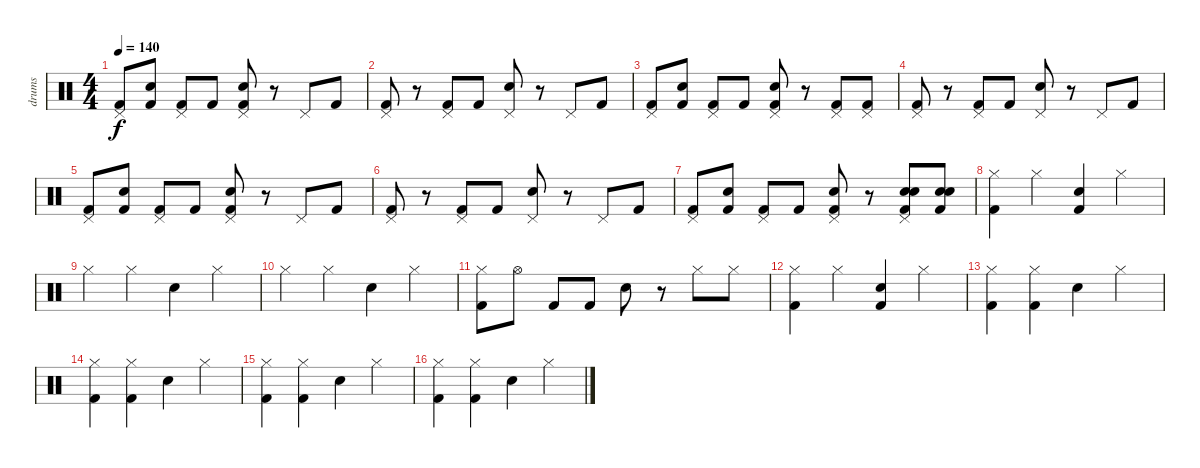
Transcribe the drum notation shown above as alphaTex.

\track ("drums" "drums") {instrument percussion}
\staff {score}
\articulation defaults
\ts (4 4)
\tempo 140
\clef neutral
\ks c
("Kick (hit) 2" "Pedal Hi-Hat (hit)").8{dy f} ("Snare (hit) 2" "Kick (hit) 2").8 ("Kick (hit) 2" "Pedal Hi-Hat (hit)").8 "Kick (hit) 2".8 ("Snare (hit) 2" "Kick (hit) 2" "Pedal Hi-Hat (hit)").8 r.8 "Pedal Hi-Hat (hit)".8 "Kick (hit) 2".8 |
("Pedal Hi-Hat (hit)" "Kick (hit) 2").8 r.8 ("Pedal Hi-Hat (hit)" "Kick (hit) 2").8 "Kick (hit) 2".8 ("Pedal Hi-Hat (hit)" "Snare (hit) 2").8 r.8 "Pedal Hi-Hat (hit)".8 "Kick (hit) 2".8 |
("Kick (hit) 2" "Pedal Hi-Hat (hit)").8 ("Snare (hit) 2" "Kick (hit) 2").8 ("Kick (hit) 2" "Pedal Hi-Hat (hit)").8 "Kick (hit) 2".8 ("Snare (hit) 2" "Kick (hit) 2" "Pedal Hi-Hat (hit)").8 r.8 ("Kick (hit) 2" "Pedal Hi-Hat (hit)").8 ("Kick (hit) 2" "Pedal Hi-Hat (hit)").8 |
("Pedal Hi-Hat (hit)" "Kick (hit) 2").8 r.8 ("Pedal Hi-Hat (hit)" "Kick (hit) 2").8 "Kick (hit) 2".8 ("Pedal Hi-Hat (hit)" "Snare (hit) 2").8 r.8 "Pedal Hi-Hat (hit)".8 "Kick (hit) 2".8 |
("Kick (hit) 2" "Pedal Hi-Hat (hit)").8 ("Snare (hit) 2" "Kick (hit) 2").8 ("Kick (hit) 2" "Pedal Hi-Hat (hit)").8 "Kick (hit) 2".8 ("Snare (hit) 2" "Kick (hit) 2" "Pedal Hi-Hat (hit)").8 r.8 "Pedal Hi-Hat (hit)".8 "Kick (hit) 2".8 |
("Pedal Hi-Hat (hit)" "Kick (hit) 2").8 r.8 ("Pedal Hi-Hat (hit)" "Kick (hit) 2").8 "Kick (hit) 2".8 ("Pedal Hi-Hat (hit)" "Snare (hit) 2").8 r.8 "Pedal Hi-Hat (hit)".8 "Kick (hit) 2".8 |
("Kick (hit) 2" "Pedal Hi-Hat (hit)").8 ("Snare (hit) 2" "Kick (hit) 2").8 ("Kick (hit) 2" "Pedal Hi-Hat (hit)").8 "Kick (hit) 2".8 ("Snare (hit) 2" "Kick (hit) 2" "Pedal Hi-Hat (hit)").8 r.8 ("Kick (hit) 2" "Snare (hit) 2" "Snare (hit) 2" "Pedal Hi-Hat (hit)").8 ("Kick (hit) 2" "Snare (hit) 2" "Snare (hit) 2").8 |
("Hi-Hat (closed)" "Kick (hit) 2").4 "Hi-Hat (closed)".4 ("Snare (hit) 2" "Kick (hit) 2").4 "Hi-Hat (closed)".4 |
"Hi-Hat (closed)".4 "Hi-Hat (closed)".4 "Snare (hit) 2".4 "Hi-Hat (closed)".4 |
"Hi-Hat (closed)".4 "Hi-Hat (closed)".4 "Snare (hit) 2".4 "Hi-Hat (closed)".4 |
("Hi-Hat (closed)" "Kick (hit) 2").8 "Hi-Hat (open)".8 "Kick (hit) 2".8 "Kick (hit) 2".8 "Snare (hit) 2".8 r.8 "Hi-Hat (closed)".8 "Hi-Hat (closed)".8 |
("Hi-Hat (closed)" "Kick (hit) 2").4 "Hi-Hat (closed)".4 ("Snare (hit) 2" "Kick (hit) 2").4 "Hi-Hat (closed)".4 |
("Hi-Hat (closed)" "Kick (hit) 2").4 ("Hi-Hat (closed)" "Kick (hit) 2").4 "Snare (hit) 2".4 "Hi-Hat (closed)".4 |
("Hi-Hat (closed)" "Kick (hit) 2").4 ("Hi-Hat (closed)" "Kick (hit) 2").4 "Snare (hit) 2".4 "Hi-Hat (closed)".4 |
("Hi-Hat (closed)" "Kick (hit) 2").4 ("Hi-Hat (closed)" "Kick (hit) 2").4 "Snare (hit) 2".4 "Hi-Hat (closed)".4 |
("Hi-Hat (closed)" "Kick (hit) 2").4 ("Hi-Hat (closed)" "Kick (hit) 2").4 "Snare (hit) 2".4 "Hi-Hat (closed)".4
